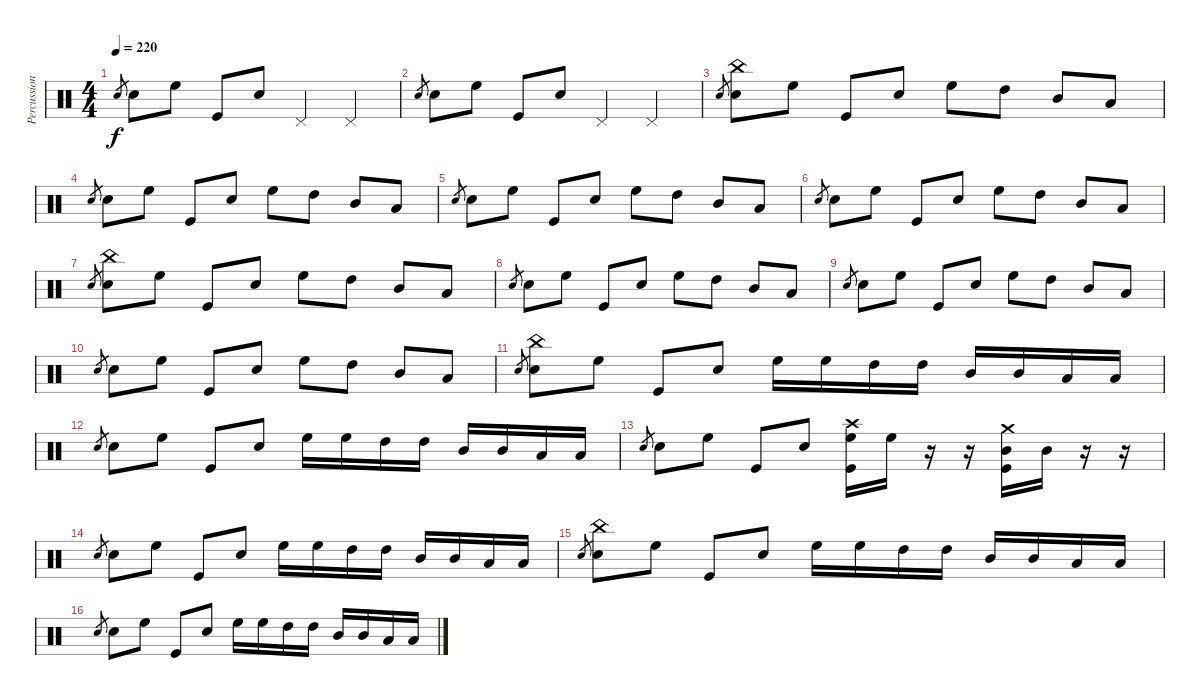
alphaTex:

\track ("Percussions" "Percussion") {instrument percussion}
\staff {score}
\articulation defaults
\ts (4 4)
\tempo 220
\clef neutral
\ks c "Electric Snare (hit)".8{gr dy f} "Electric Snare (hit)".8 "High Floor Tom (hit)".8 "Kick (hit)".8 "Electric Snare (hit)".8 "Pedal Hi-Hat (hit)".4 "Pedal Hi-Hat (hit)".4
|
"Electric Snare (hit)".8{gr} "Electric Snare (hit)".8 "High Floor Tom (hit)".8 "Kick (hit)".8 "Electric Snare (hit)".8 "Pedal Hi-Hat (hit)".4 "Pedal Hi-Hat (hit)".4 |
"Electric Snare (hit)".8{gr} ("China (hit)" "Electric Snare (hit)").8 "High Floor Tom (hit)".8 "Kick (hit)".8 "Electric Snare (hit)".8 "High Floor Tom (hit)".8 "High Tom (hit)".8 "Mid Tom (hit)".8 "Low Tom (hit)".8 |
"Electric Snare (hit)".8{gr} "Electric Snare (hit)".8 "High Floor Tom (hit)".8 "Kick (hit)".8 "Electric Snare (hit)".8 "High Floor Tom (hit)".8 "High Tom (hit)".8 "Mid Tom (hit)".8 "Low Tom (hit)".8 |
"Electric Snare (hit)".8{gr} "Electric Snare (hit)".8 "High Floor Tom (hit)".8 "Kick (hit)".8 "Electric Snare (hit)".8 "High Floor Tom (hit)".8 "High Tom (hit)".8 "Mid Tom (hit)".8 "Low Tom (hit)".8 |
"Electric Snare (hit)".8{gr} "Electric Snare (hit)".8 "High Floor Tom (hit)".8 "Kick (hit)".8 "Electric Snare (hit)".8 "High Floor Tom (hit)".8 "High Tom (hit)".8 "Mid Tom (hit)".8 "Low Tom (hit)".8 |
"Electric Snare (hit)".8{gr} ("China (hit)" "Electric Snare (hit)").8 "High Floor Tom (hit)".8 "Kick (hit)".8 "Electric Snare (hit)".8 "High Floor Tom (hit)".8 "High Tom (hit)".8 "Mid Tom (hit)".8 "Low Tom (hit)".8 |
"Electric Snare (hit)".8{gr} "Electric Snare (hit)".8 "High Floor Tom (hit)".8 "Kick (hit)".8 "Electric Snare (hit)".8 "High Floor Tom (hit)".8 "High Tom (hit)".8 "Mid Tom (hit)".8 "Low Tom (hit)".8 |
"Electric Snare (hit)".8{gr} "Electric Snare (hit)".8 "High Floor Tom (hit)".8 "Kick (hit)".8 "Electric Snare (hit)".8 "High Floor Tom (hit)".8 "High Tom (hit)".8 "Mid Tom (hit)".8 "Low Tom (hit)".8 |
"Electric Snare (hit)".8{gr} "Electric Snare (hit)".8 "High Floor Tom (hit)".8 "Kick (hit)".8 "Electric Snare (hit)".8 "High Floor Tom (hit)".8 "High Tom (hit)".8 "Mid Tom (hit)".8 "Low Tom (hit)".8 |
"Electric Snare (hit)".8{gr} ("China (hit)" "Electric Snare (hit)").8 "High Floor Tom (hit)".8 "Kick (hit)".8 "Electric Snare (hit)".8 "High Floor Tom (hit)".16 "High Floor Tom (hit)".16 "High Tom (hit)".16 "High Tom (hit)".16 "Mid Tom (hit)".16 "Mid Tom (hit)".16 "Low Tom (hit)".16 "Low Tom (hit)".16 |
"Electric Snare (hit)".8{gr} "Electric Snare (hit)".8 "High Floor Tom (hit)".8 "Kick (hit)".8 "Electric Snare (hit)".8 "High Floor Tom (hit)".16 "High Floor Tom (hit)".16 "High Tom (hit)".16 "High Tom (hit)".16 "Mid Tom (hit)".16 "Mid Tom (hit)".16 "Low Tom (hit)".16 "Low Tom (hit)".16 |
"Electric Snare (hit)".8{gr} "Electric Snare (hit)".8 "High Floor Tom (hit)".8 "Kick (hit)".8 "Electric Snare (hit)".8 ("Crash high (hit)" "High Floor Tom (hit)" "Kick (hit)").16 "High Floor Tom (hit)".16 r.16 r.16 ("Crash medium (hit)" "Mid Tom (hit)" "Kick (hit)").16 "Mid Tom (hit)".16 r.16 r.16 |
"Electric Snare (hit)".8{gr} "Electric Snare (hit)".8 "High Floor Tom (hit)".8 "Kick (hit)".8 "Electric Snare (hit)".8 "High Floor Tom (hit)".16 "High Floor Tom (hit)".16 "High Tom (hit)".16 "High Tom (hit)".16 "Mid Tom (hit)".16 "Mid Tom (hit)".16 "Low Tom (hit)".16 "Low Tom (hit)".16 |
"Electric Snare (hit)".8{gr} ("China (hit)" "Electric Snare (hit)").8 "High Floor Tom (hit)".8 "Kick (hit)".8 "Electric Snare (hit)".8 "High Floor Tom (hit)".16 "High Floor Tom (hit)".16 "High Tom (hit)".16 "High Tom (hit)".16 "Mid Tom (hit)".16 "Mid Tom (hit)".16 "Low Tom (hit)".16 "Low Tom (hit)".16 |
"Electric Snare (hit)".8{gr} "Electric Snare (hit)".8 "High Floor Tom (hit)".8 "Kick (hit)".8 "Electric Snare (hit)".8 "High Floor Tom (hit)".16 "High Floor Tom (hit)".16 "High Tom (hit)".16 "High Tom (hit)".16 "Mid Tom (hit)".16 "Mid Tom (hit)".16 "Low Tom (hit)".16 "Low Tom (hit)".16
